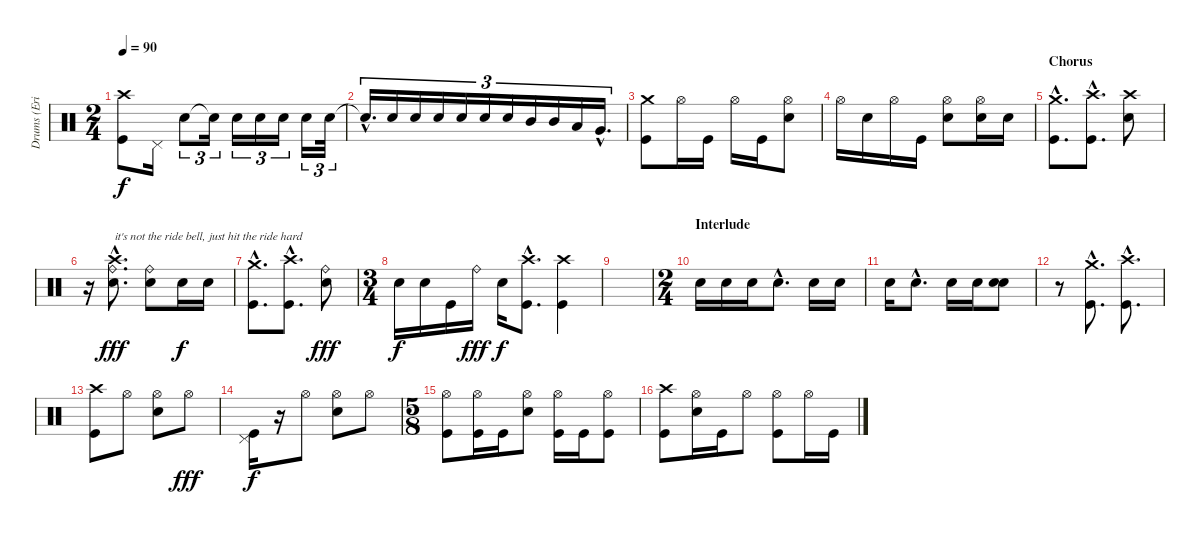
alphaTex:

\track ("Drums (Eric Singer)" "Drums (Eri") {instrument percussion}
\staff {score}
\articulation defaults
\ts (2 4)
\tempo 90
\clef neutral
\ks c
("Crash high (hit)" "Kick (hit)").8{dy f} "Pedal Hi-Hat (hit)".16 "Electric Snare (hit)".8{tu (3 2)} "Snare (hit)"{t}.16{tu (3 2)} "Electric Snare (hit)".16{tu (3 2)} "Electric Snare (hit)".16{tu (3 2)} "Electric Snare (hit)".16{tu (3 2)} "Electric Snare (hit)".16{tu (3 2)} "Electric Snare (hit)".32{tu (3 2)} |
"Electric Snare (hit)"{hac t}.16{d tu (3 2)} "Electric Snare (hit)".16{tu (3 2)} "Electric Snare (hit)".16{tu (3 2)} "Electric Snare (hit)".16{tu (3 2)} "Electric Snare (hit)".16{tu (3 2)} "Electric Snare (hit)".16{tu (3 2)} "Electric Snare (hit)".16{tu (3 2)} "Mid Tom (hit)".16{tu (3 2)} "Mid Tom (hit)".16{tu (3 2)} "Low Tom (hit)".16{tu (3 2)} "Very Low Tom (hit)"{hac}.16{d tu (3 2)} |
("Crash medium (hit)" "Kick (hit)").8 "Hi-Hat (open)".16 "Kick (hit)".16 "Hi-Hat (open)".16 "Kick (hit)".16 ("Hi-Hat (open)" "Electric Snare (hit)").8 |
"Hi-Hat (open)".16 "Electric Snare (hit)".16 "Hi-Hat (open)".16 "Kick (hit)".16 ("Hi-Hat (open)" "Electric Snare (hit)").8 ("Hi-Hat (open)" "Electric Snare (hit)").16 "Electric Snare (hit)".16 |
\section ("" "Chorus")
("Crash medium (hit)"{hac} "Kick (hit)"{hac}).8{d} ("Crash high (hit)"{hac} "Kick (hit)"{hac}).8{d} ("Crash high (hit)" "Electric Snare (hit)").8 |
r.16 ("Crash high (hit)"{hac} "Ride (bell)"{hac} "Electric Snare (hit)"{hac}).8{d txt "it's not the ride bell, just hit the ride hard" dy fff} ("Ride (bell)" "Electric Snare (hit)").8 "Electric Snare (hit)".16{dy f} "Electric Snare (hit)".16 |
("Crash medium (hit)"{hac} "Kick (hit)"{hac}).8{d} ("Crash high (hit)"{hac} "Kick (hit)"{hac}).8{d} ("Ride (bell)" "Electric Snare (hit)").8{dy fff} |
\ts (3 4)
"Electric Snare (hit)".16{dy f} "Electric Snare (hit)".16 "Kick (hit)".16 "Ride (bell)".16{dy fff} "Electric Snare (hit)".16{dy f} ("Crash high (hit)"{hac} "Kick (hit)"{hac}).8{d} ("Crash high (hit)" "Kick (hit)").4 |
|
\ts (2 4)
\section ("" "Interlude")
"Electric Snare (hit)".16 "Electric Snare (hit)".16 "Electric Snare (hit)".16 "Electric Snare (hit)"{hac}.8{d} "Electric Snare (hit)".16 "Electric Snare (hit)".16 |
"Electric Snare (hit)".16 "Electric Snare (hit)"{hac}.8{d} "Electric Snare (hit)".16 "Electric Snare (hit)".16 ("Electric Snare (hit)" "Electric Snare (hit)").8 |
r.8 ("Crash medium (hit)"{hac} "Kick (hit)"{hac}).8{d} ("Crash high (hit)"{hac} "Kick (hit)"{hac}).8{d} |
("Crash high (hit)" "Kick (hit)").8 "Hi-Hat (open)".8 ("Hi-Hat (open)" "Electric Snare (hit)").8 "Hi-Hat (open)".8{dy fff} |
("Pedal Hi-Hat (hit)" "Kick (hit)").16{dy f} r.16 "Hi-Hat (open)".8 ("Hi-Hat (open)" "Electric Snare (hit)").8 "Hi-Hat (open)".8 |
\ts (5 8)
("Hi-Hat (open)" "Kick (hit)").8 ("Hi-Hat (open)" "Kick (hit)").16 "Kick (hit)".16 ("Hi-Hat (open)" "Electric Snare (hit)").8 ("Hi-Hat (open)" "Kick (hit)").16 "Kick (hit)".16 ("Hi-Hat (open)" "Kick (hit)").8 |
("Crash high (hit)" "Kick (hit)").8 ("Hi-Hat (open)" "Electric Snare (hit)").16 "Kick (hit)".16 "Hi-Hat (open)".8 ("Hi-Hat (open)" "Kick (hit)").8 "Hi-Hat (open)".16 "Kick (hit)".16
